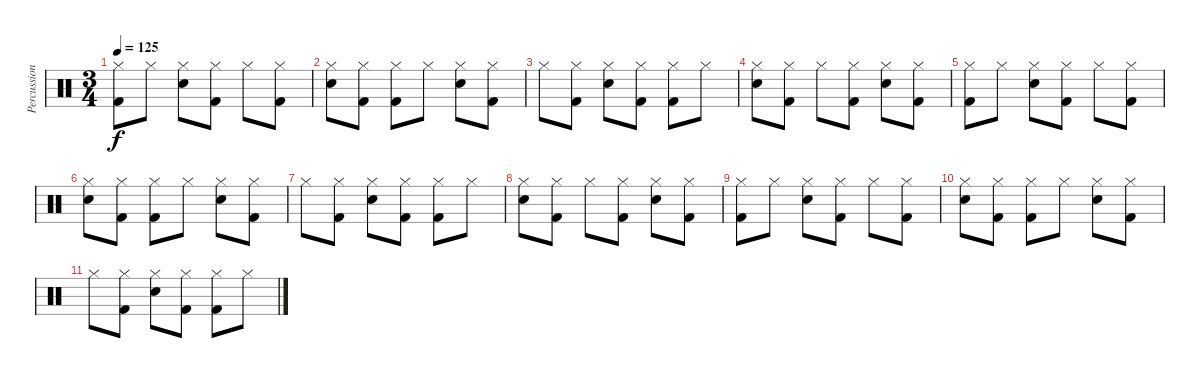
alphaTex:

\track ("Percussion" "Percussion") {instrument percussion}
\staff {score}
\articulation defaults
\ts (3 4)
\tempo 125
\clef neutral
\ks c
("Hi-Hat (closed)" "Kick (hit) 2").8{dy f} "Hi-Hat (closed)".8 ("Hi-Hat (closed)" "Snare (hit) 2").8 ("Hi-Hat (closed)" "Kick (hit) 2").8 "Hi-Hat (closed)".8 ("Hi-Hat (closed)" "Kick (hit) 2").8 |
("Hi-Hat (closed)" "Snare (hit) 2").8 ("Hi-Hat (closed)" "Kick (hit) 2").8 ("Hi-Hat (closed)" "Kick (hit) 2").8 "Hi-Hat (closed)".8 ("Hi-Hat (closed)" "Snare (hit) 2").8 ("Hi-Hat (closed)" "Kick (hit) 2").8 |
"Hi-Hat (closed)".8 ("Hi-Hat (closed)" "Kick (hit) 2").8 ("Hi-Hat (closed)" "Snare (hit) 2").8 ("Hi-Hat (closed)" "Kick (hit) 2").8 ("Hi-Hat (closed)" "Kick (hit) 2").8 "Hi-Hat (closed)".8 |
("Hi-Hat (closed)" "Snare (hit) 2").8 ("Hi-Hat (closed)" "Kick (hit) 2").8 "Hi-Hat (closed)".8 ("Hi-Hat (closed)" "Kick (hit) 2").8 ("Hi-Hat (closed)" "Snare (hit) 2").8 ("Hi-Hat (closed)" "Kick (hit) 2").8 |
("Hi-Hat (closed)" "Kick (hit) 2").8 "Hi-Hat (closed)".8 ("Hi-Hat (closed)" "Snare (hit) 2").8 ("Hi-Hat (closed)" "Kick (hit) 2").8 "Hi-Hat (closed)".8 ("Hi-Hat (closed)" "Kick (hit) 2").8 |
("Hi-Hat (closed)" "Snare (hit) 2").8 ("Hi-Hat (closed)" "Kick (hit) 2").8 ("Hi-Hat (closed)" "Kick (hit) 2").8 "Hi-Hat (closed)".8 ("Hi-Hat (closed)" "Snare (hit) 2").8 ("Hi-Hat (closed)" "Kick (hit) 2").8 |
"Hi-Hat (closed)".8 ("Hi-Hat (closed)" "Kick (hit) 2").8 ("Hi-Hat (closed)" "Snare (hit) 2").8 ("Hi-Hat (closed)" "Kick (hit) 2").8 ("Hi-Hat (closed)" "Kick (hit) 2").8 "Hi-Hat (closed)".8 |
("Hi-Hat (closed)" "Snare (hit) 2").8 ("Hi-Hat (closed)" "Kick (hit) 2").8 "Hi-Hat (closed)".8 ("Hi-Hat (closed)" "Kick (hit) 2").8 ("Hi-Hat (closed)" "Snare (hit) 2").8 ("Hi-Hat (closed)" "Kick (hit) 2").8 |
("Hi-Hat (closed)" "Kick (hit) 2").8 "Hi-Hat (closed)".8 ("Hi-Hat (closed)" "Snare (hit) 2").8 ("Hi-Hat (closed)" "Kick (hit) 2").8 "Hi-Hat (closed)".8 ("Hi-Hat (closed)" "Kick (hit) 2").8 |
("Hi-Hat (closed)" "Snare (hit) 2").8 ("Hi-Hat (closed)" "Kick (hit) 2").8 ("Hi-Hat (closed)" "Kick (hit) 2").8 "Hi-Hat (closed)".8 ("Hi-Hat (closed)" "Snare (hit) 2").8 ("Hi-Hat (closed)" "Kick (hit) 2").8 |
"Hi-Hat (closed)".8 ("Hi-Hat (closed)" "Kick (hit) 2").8 ("Hi-Hat (closed)" "Snare (hit) 2").8 ("Hi-Hat (closed)" "Kick (hit) 2").8 ("Hi-Hat (closed)" "Kick (hit) 2").8 "Hi-Hat (closed)".8
